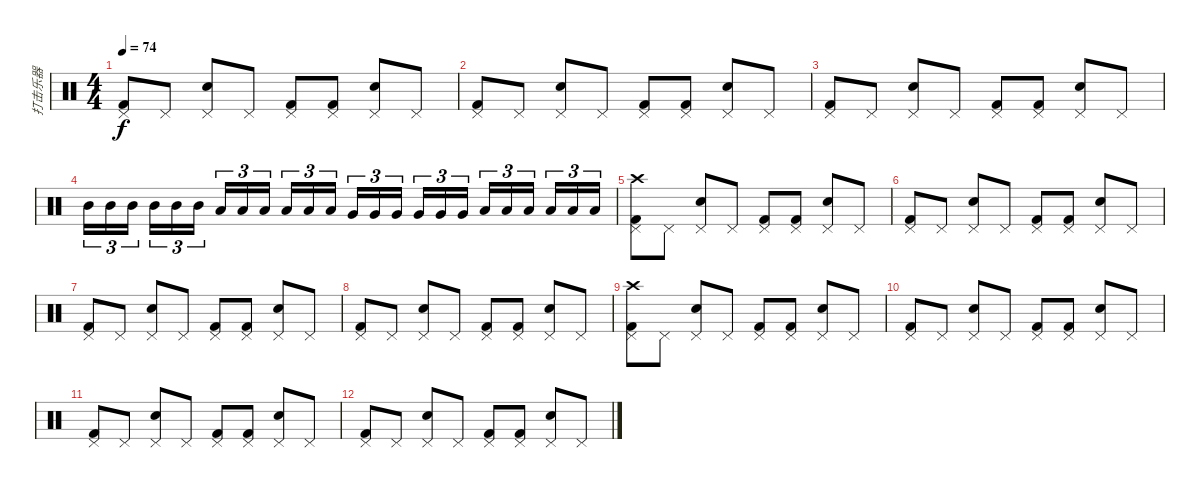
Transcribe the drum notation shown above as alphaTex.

\track ("打击乐器" "打击乐器") {instrument percussion}
\staff {score}
\articulation defaults
\ts (4 4)
\tempo 74
\clef neutral
\ks c
("Pedal Hi-Hat (hit)" "Kick (hit) 2").8{dy f} "Pedal Hi-Hat (hit)".8 ("Pedal Hi-Hat (hit)" "Electric Snare (hit)").8 "Pedal Hi-Hat (hit)".8 ("Pedal Hi-Hat (hit)" "Kick (hit) 2").8 ("Pedal Hi-Hat (hit)" "Kick (hit) 2").8 ("Pedal Hi-Hat (hit)" "Electric Snare (hit)").8 "Pedal Hi-Hat (hit)".8 |
("Pedal Hi-Hat (hit)" "Kick (hit) 2").8 "Pedal Hi-Hat (hit)".8 ("Pedal Hi-Hat (hit)" "Electric Snare (hit)").8 "Pedal Hi-Hat (hit)".8 ("Pedal Hi-Hat (hit)" "Kick (hit) 2").8 ("Pedal Hi-Hat (hit)" "Kick (hit) 2").8 ("Pedal Hi-Hat (hit)" "Electric Snare (hit)").8 "Pedal Hi-Hat (hit)".8 |
("Pedal Hi-Hat (hit)" "Kick (hit) 2").8 "Pedal Hi-Hat (hit)".8 ("Pedal Hi-Hat (hit)" "Electric Snare (hit)").8 "Pedal Hi-Hat (hit)".8 ("Pedal Hi-Hat (hit)" "Kick (hit) 2").8 ("Pedal Hi-Hat (hit)" "Kick (hit) 2").8 ("Pedal Hi-Hat (hit)" "Electric Snare (hit)").8 "Pedal Hi-Hat (hit)".8 |
"Mid Tom (hit)".16{tu (3 2)} "Mid Tom (hit)".16{tu (3 2)} "Mid Tom (hit)".16{tu (3 2)} "Mid Tom (hit)".16{tu (3 2)} "Mid Tom (hit)".16{tu (3 2)} "Mid Tom (hit)".16{tu (3 2)} "Low Tom (hit)".16{tu (3 2)} "Low Tom (hit)".16{tu (3 2)} "Low Tom (hit)".16{tu (3 2)} "Low Tom (hit)".16{tu (3 2)} "Low Tom (hit)".16{tu (3 2)} "Low Tom (hit)".16{tu (3 2)} "Very Low Tom (hit)".16{tu (3 2)} "Very Low Tom (hit)".16{tu (3 2)} "Very Low Tom (hit)".16{tu (3 2)} "Very Low Tom (hit)".16{tu (3 2)} "Very Low Tom (hit)".16{tu (3 2)} "Very Low Tom (hit)".16{tu (3 2)} "Low Floor Tom (hit)".16{tu (3 2)} "Low Floor Tom (hit)".16{tu (3 2)} "Low Floor Tom (hit)".16{tu (3 2)} "Low Floor Tom (hit)".16{tu (3 2)} "Low Floor Tom (hit)".16{tu (3 2)} "Low Floor Tom (hit)".16{tu (3 2)} |
("Pedal Hi-Hat (hit)" "Kick (hit) 2" "Crash high (hit)").8{volume 14} "Pedal Hi-Hat (hit)".8 ("Pedal Hi-Hat (hit)" "Electric Snare (hit)").8 "Pedal Hi-Hat (hit)".8 ("Pedal Hi-Hat (hit)" "Kick (hit) 2").8 ("Pedal Hi-Hat (hit)" "Kick (hit) 2").8 ("Pedal Hi-Hat (hit)" "Electric Snare (hit)").8 "Pedal Hi-Hat (hit)".8 |
("Pedal Hi-Hat (hit)" "Kick (hit) 2").8{volume 12} "Pedal Hi-Hat (hit)".8 ("Pedal Hi-Hat (hit)" "Electric Snare (hit)").8 "Pedal Hi-Hat (hit)".8 ("Pedal Hi-Hat (hit)" "Kick (hit) 2").8 ("Pedal Hi-Hat (hit)" "Kick (hit) 2").8 ("Pedal Hi-Hat (hit)" "Electric Snare (hit)").8 "Pedal Hi-Hat (hit)".8 |
("Pedal Hi-Hat (hit)" "Kick (hit) 2").8{volume 10} "Pedal Hi-Hat (hit)".8 ("Pedal Hi-Hat (hit)" "Electric Snare (hit)").8 "Pedal Hi-Hat (hit)".8 ("Pedal Hi-Hat (hit)" "Kick (hit) 2").8 ("Pedal Hi-Hat (hit)" "Kick (hit) 2").8 ("Pedal Hi-Hat (hit)" "Electric Snare (hit)").8 "Pedal Hi-Hat (hit)".8 |
("Pedal Hi-Hat (hit)" "Kick (hit) 2").8{volume 8} "Pedal Hi-Hat (hit)".8 ("Pedal Hi-Hat (hit)" "Electric Snare (hit)").8 "Pedal Hi-Hat (hit)".8 ("Pedal Hi-Hat (hit)" "Kick (hit) 2").8 ("Pedal Hi-Hat (hit)" "Kick (hit) 2").8 ("Pedal Hi-Hat (hit)" "Electric Snare (hit)").8 "Pedal Hi-Hat (hit)".8 |
("Pedal Hi-Hat (hit)" "Kick (hit) 2" "Crash high (hit)").8{volume 6} "Pedal Hi-Hat (hit)".8 ("Pedal Hi-Hat (hit)" "Electric Snare (hit)").8 "Pedal Hi-Hat (hit)".8 ("Pedal Hi-Hat (hit)" "Kick (hit) 2").8 ("Pedal Hi-Hat (hit)" "Kick (hit) 2").8 ("Pedal Hi-Hat (hit)" "Electric Snare (hit)").8 "Pedal Hi-Hat (hit)".8 |
("Pedal Hi-Hat (hit)" "Kick (hit) 2").8{volume 4} "Pedal Hi-Hat (hit)".8 ("Pedal Hi-Hat (hit)" "Electric Snare (hit)").8 "Pedal Hi-Hat (hit)".8 ("Pedal Hi-Hat (hit)" "Kick (hit) 2").8 ("Pedal Hi-Hat (hit)" "Kick (hit) 2").8 ("Pedal Hi-Hat (hit)" "Electric Snare (hit)").8 "Pedal Hi-Hat (hit)".8 |
("Pedal Hi-Hat (hit)" "Kick (hit) 2").8{volume 3} "Pedal Hi-Hat (hit)".8 ("Pedal Hi-Hat (hit)" "Electric Snare (hit)").8 "Pedal Hi-Hat (hit)".8 ("Pedal Hi-Hat (hit)" "Kick (hit) 2").8 ("Pedal Hi-Hat (hit)" "Kick (hit) 2").8 ("Pedal Hi-Hat (hit)" "Electric Snare (hit)").8 "Pedal Hi-Hat (hit)".8 |
("Pedal Hi-Hat (hit)" "Kick (hit) 2").8{volume 1} "Pedal Hi-Hat (hit)".8 ("Pedal Hi-Hat (hit)" "Electric Snare (hit)").8 "Pedal Hi-Hat (hit)".8 ("Pedal Hi-Hat (hit)" "Kick (hit) 2").8 ("Pedal Hi-Hat (hit)" "Kick (hit) 2").8 ("Pedal Hi-Hat (hit)" "Electric Snare (hit)").8 "Pedal Hi-Hat (hit)".8
